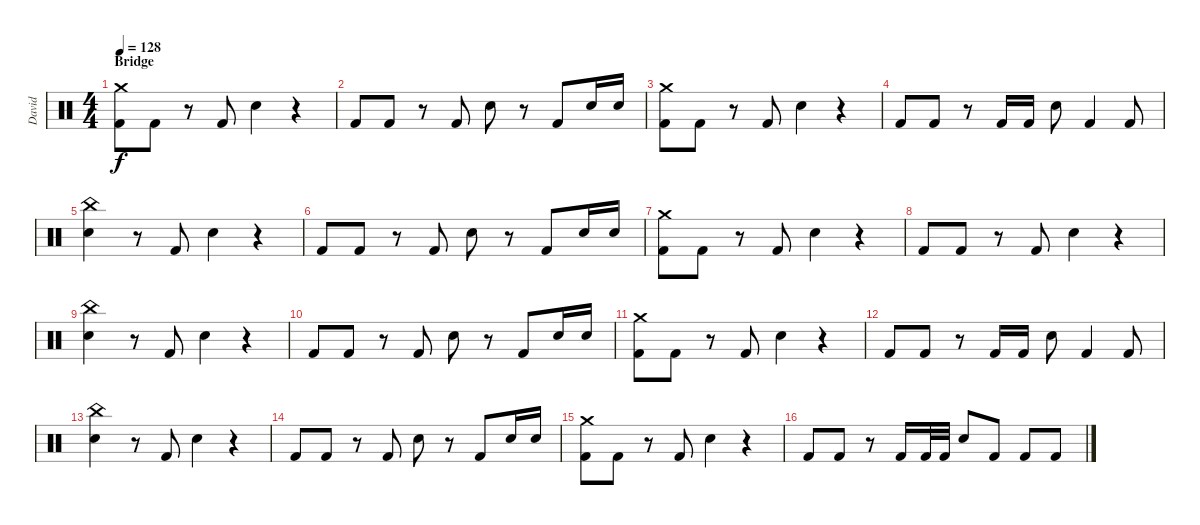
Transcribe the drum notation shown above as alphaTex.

\track ("David" "David") {instrument percussion}
\staff {score}
\articulation defaults
\ts (4 4)
\section ("" "Bridge")
\tempo 128
\clef neutral
\ks c
("Crash medium (hit)" "Kick (hit) 2").8{dy f} "Kick (hit) 2".8 r.8 "Kick (hit) 2".8 "Snare (hit) 2".4 r.4 |
"Kick (hit) 2".8 "Kick (hit) 2".8 r.8 "Kick (hit) 2".8 "Snare (hit) 2".8 r.8 "Kick (hit) 2".8 "Snare (hit) 2".16 "Snare (hit) 2".16 |
("Crash medium (hit)" "Kick (hit) 2").8 "Kick (hit) 2".8 r.8 "Kick (hit) 2".8 "Snare (hit) 2".4 r.4 |
"Kick (hit) 2".8 "Kick (hit) 2".8 r.8 "Kick (hit) 2".16 "Kick (hit) 2".16 "Snare (hit) 2".8 "Kick (hit) 2".4 "Kick (hit) 2".8 |
("China (hit)" "Snare (hit) 2").4 r.8 "Kick (hit) 2".8 "Snare (hit) 2".4 r.4 |
"Kick (hit) 2".8 "Kick (hit) 2".8 r.8 "Kick (hit) 2".8 "Snare (hit) 2".8 r.8 "Kick (hit) 2".8 "Snare (hit) 2".16 "Snare (hit) 2".16 |
("Crash medium (hit)" "Kick (hit) 2").8 "Kick (hit) 2".8 r.8 "Kick (hit) 2".8 "Snare (hit) 2".4 r.4 |
"Kick (hit) 2".8 "Kick (hit) 2".8 r.8 "Kick (hit) 2".8 "Snare (hit) 2".4 r.4 |
("China (hit)" "Snare (hit) 2").4 r.8 "Kick (hit) 2".8 "Snare (hit) 2".4 r.4 |
"Kick (hit) 2".8 "Kick (hit) 2".8 r.8 "Kick (hit) 2".8 "Snare (hit) 2".8 r.8 "Kick (hit) 2".8 "Snare (hit) 2".16 "Snare (hit) 2".16 |
("Crash medium (hit)" "Kick (hit) 2").8 "Kick (hit) 2".8 r.8 "Kick (hit) 2".8 "Snare (hit) 2".4 r.4 |
"Kick (hit) 2".8 "Kick (hit) 2".8 r.8 "Kick (hit) 2".16 "Kick (hit) 2".16 "Snare (hit) 2".8 "Kick (hit) 2".4 "Kick (hit) 2".8 |
("China (hit)" "Snare (hit) 2").4 r.8 "Kick (hit) 2".8 "Snare (hit) 2".4 r.4 |
"Kick (hit) 2".8 "Kick (hit) 2".8 r.8 "Kick (hit) 2".8 "Snare (hit) 2".8 r.8 "Kick (hit) 2".8 "Snare (hit) 2".16 "Snare (hit) 2".16 |
("Crash medium (hit)" "Kick (hit) 2").8 "Kick (hit) 2".8 r.8 "Kick (hit) 2".8 "Snare (hit) 2".4 r.4 |
"Kick (hit) 2".8 "Kick (hit) 2".8 r.8 "Kick (hit) 2".16 "Kick (hit) 2".32 "Kick (hit) 2".32 "Snare (hit) 2".8 "Kick (hit) 2".8 "Kick (hit) 2".8 "Kick (hit) 2".8
